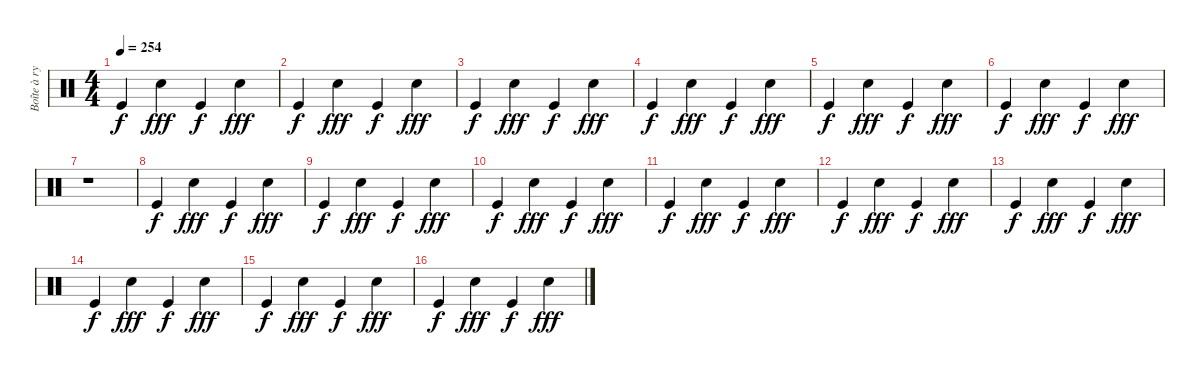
\track ("Boîte à rytmes" "Boîte à ry") {instrument percussion}
\staff {score}
\articulation defaults
\ts (4 4)
\tempo 254
\clef neutral
\ks c "Kick (hit)".4{dy f} "Snare (hit) 2".4{dy fff} "Kick (hit)".4{dy f} "Snare (hit) 2".4{dy fff}
|
"Kick (hit)".4{dy f} "Snare (hit) 2".4{dy fff} "Kick (hit)".4{dy f} "Snare (hit) 2".4{dy fff} |
"Kick (hit)".4{dy f} "Snare (hit) 2".4{dy fff} "Kick (hit)".4{dy f} "Snare (hit) 2".4{dy fff} |
"Kick (hit)".4{dy f} "Snare (hit) 2".4{dy fff} "Kick (hit)".4{dy f} "Snare (hit) 2".4{dy fff} |
"Kick (hit)".4{dy f} "Snare (hit) 2".4{dy fff} "Kick (hit)".4{dy f} "Snare (hit) 2".4{dy fff} |
"Kick (hit)".4{dy f} "Snare (hit) 2".4{dy fff} "Kick (hit)".4{dy f} "Snare (hit) 2".4{dy fff} |
r.1 |
"Kick (hit)".4{dy f} "Snare (hit) 2".4{dy fff} "Kick (hit)".4{dy f} "Snare (hit) 2".4{dy fff} |
"Kick (hit)".4{dy f} "Snare (hit) 2".4{dy fff} "Kick (hit)".4{dy f} "Snare (hit) 2".4{dy fff} |
"Kick (hit)".4{dy f} "Snare (hit) 2".4{dy fff} "Kick (hit)".4{dy f} "Snare (hit) 2".4{dy fff} |
"Kick (hit)".4{dy f} "Snare (hit) 2".4{dy fff} "Kick (hit)".4{dy f} "Snare (hit) 2".4{dy fff} |
"Kick (hit)".4{dy f} "Snare (hit) 2".4{dy fff} "Kick (hit)".4{dy f} "Snare (hit) 2".4{dy fff} |
"Kick (hit)".4{dy f} "Snare (hit) 2".4{dy fff} "Kick (hit)".4{dy f} "Snare (hit) 2".4{dy fff} |
"Kick (hit)".4{dy f} "Snare (hit) 2".4{dy fff} "Kick (hit)".4{dy f} "Snare (hit) 2".4{dy fff} |
"Kick (hit)".4{dy f} "Snare (hit) 2".4{dy fff} "Kick (hit)".4{dy f} "Snare (hit) 2".4{dy fff} |
"Kick (hit)".4{dy f} "Snare (hit) 2".4{dy fff} "Kick (hit)".4{dy f} "Snare (hit) 2".4{dy fff}
